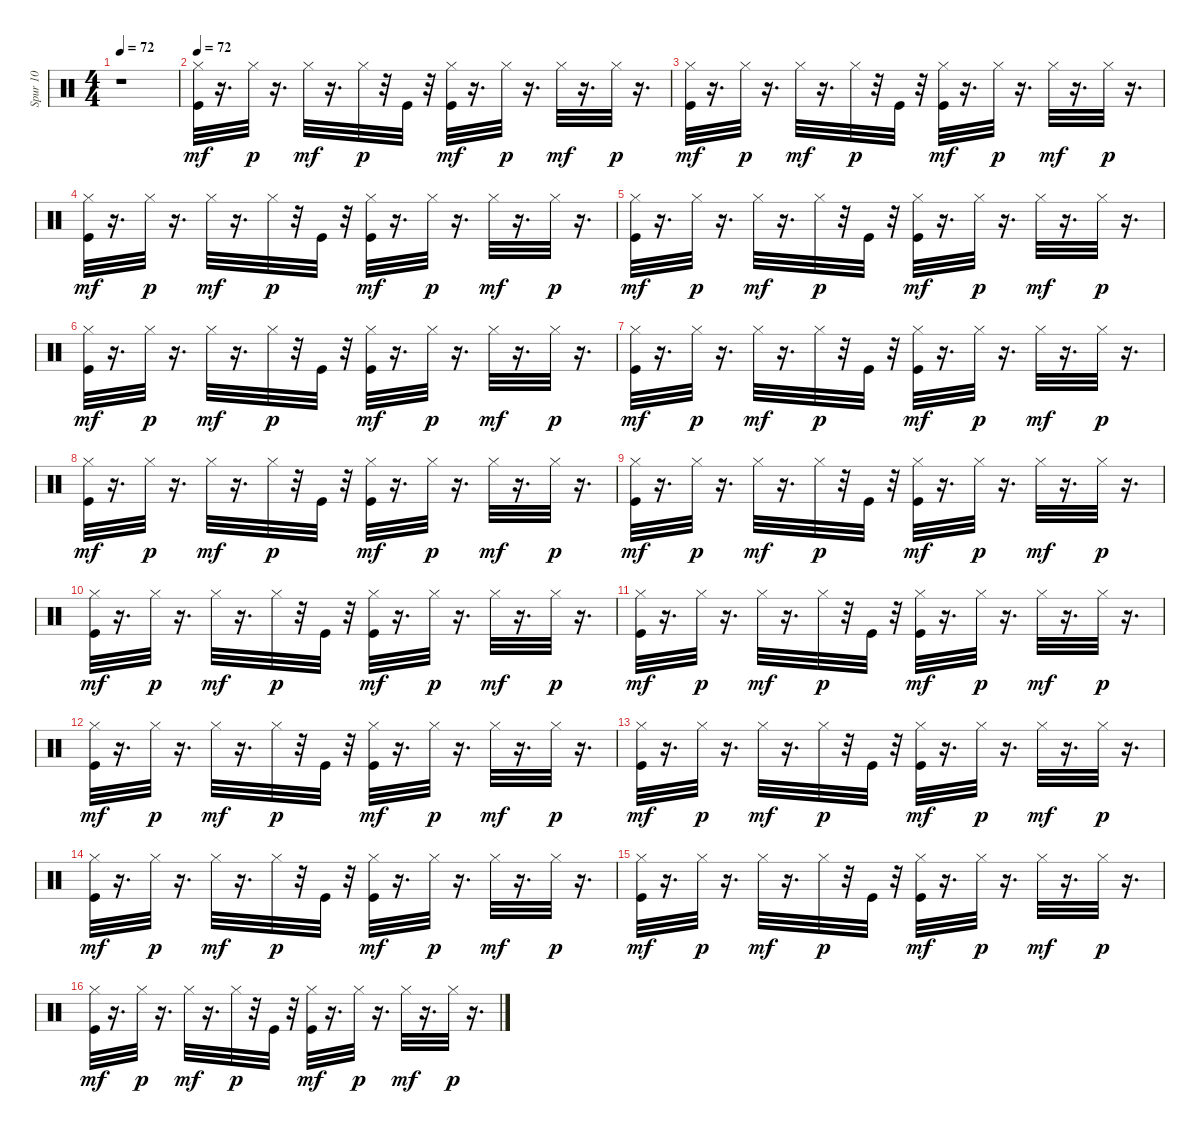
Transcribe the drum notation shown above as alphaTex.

\track ("Spur 10" "Spur 10") {instrument percussion}
\staff {score}
\articulation defaults
\ts (4 4)
\tempo 72
\clef neutral
\ks c
r.1{dy mf} |
\tempo 72
("Kick (hit)" "Hi-Hat (closed)").32 r.16{d} "Hi-Hat (closed)".32{dy p} r.16{d} "Hi-Hat (closed)".32{dy mf} r.16{d} "Hi-Hat (closed)".32{dy p} r.32 "Kick (hit)".32 r.32 ("Kick (hit)" "Hi-Hat (closed)").32{dy mf} r.16{d} "Hi-Hat (closed)".32{dy p} r.16{d} "Hi-Hat (closed)".32{dy mf} r.16{d} "Hi-Hat (closed)".32{dy p} r.16{d} |
("Kick (hit)" "Hi-Hat (closed)").32{dy mf} r.16{d} "Hi-Hat (closed)".32{dy p} r.16{d} "Hi-Hat (closed)".32{dy mf} r.16{d} "Hi-Hat (closed)".32{dy p} r.32 "Kick (hit)".32 r.32 ("Kick (hit)" "Hi-Hat (closed)").32{dy mf} r.16{d} "Hi-Hat (closed)".32{dy p} r.16{d} "Hi-Hat (closed)".32{dy mf} r.16{d} "Hi-Hat (closed)".32{dy p} r.16{d} |
("Kick (hit)" "Hi-Hat (closed)").32{dy mf} r.16{d} "Hi-Hat (closed)".32{dy p} r.16{d} "Hi-Hat (closed)".32{dy mf} r.16{d} "Hi-Hat (closed)".32{dy p} r.32 "Kick (hit)".32 r.32 ("Kick (hit)" "Hi-Hat (closed)").32{dy mf} r.16{d} "Hi-Hat (closed)".32{dy p} r.16{d} "Hi-Hat (closed)".32{dy mf} r.16{d} "Hi-Hat (closed)".32{dy p} r.16{d} |
("Kick (hit)" "Hi-Hat (closed)").32{dy mf} r.16{d} "Hi-Hat (closed)".32{dy p} r.16{d} "Hi-Hat (closed)".32{dy mf} r.16{d} "Hi-Hat (closed)".32{dy p} r.32 "Kick (hit)".32 r.32 ("Kick (hit)" "Hi-Hat (closed)").32{dy mf} r.16{d} "Hi-Hat (closed)".32{dy p} r.16{d} "Hi-Hat (closed)".32{dy mf} r.16{d} "Hi-Hat (closed)".32{dy p} r.16{d} |
("Kick (hit)" "Hi-Hat (closed)").32{dy mf} r.16{d} "Hi-Hat (closed)".32{dy p} r.16{d} "Hi-Hat (closed)".32{dy mf} r.16{d} "Hi-Hat (closed)".32{dy p} r.32 "Kick (hit)".32 r.32 ("Kick (hit)" "Hi-Hat (closed)").32{dy mf} r.16{d} "Hi-Hat (closed)".32{dy p} r.16{d} "Hi-Hat (closed)".32{dy mf} r.16{d} "Hi-Hat (closed)".32{dy p} r.16{d} |
("Kick (hit)" "Hi-Hat (closed)").32{dy mf} r.16{d} "Hi-Hat (closed)".32{dy p} r.16{d} "Hi-Hat (closed)".32{dy mf} r.16{d} "Hi-Hat (closed)".32{dy p} r.32 "Kick (hit)".32 r.32 ("Kick (hit)" "Hi-Hat (closed)").32{dy mf} r.16{d} "Hi-Hat (closed)".32{dy p} r.16{d} "Hi-Hat (closed)".32{dy mf} r.16{d} "Hi-Hat (closed)".32{dy p} r.16{d} |
("Kick (hit)" "Hi-Hat (closed)").32{dy mf} r.16{d} "Hi-Hat (closed)".32{dy p} r.16{d} "Hi-Hat (closed)".32{dy mf} r.16{d} "Hi-Hat (closed)".32{dy p} r.32 "Kick (hit)".32 r.32 ("Kick (hit)" "Hi-Hat (closed)").32{dy mf} r.16{d} "Hi-Hat (closed)".32{dy p} r.16{d} "Hi-Hat (closed)".32{dy mf} r.16{d} "Hi-Hat (closed)".32{dy p} r.16{d} |
("Kick (hit)" "Hi-Hat (closed)").32{dy mf} r.16{d} "Hi-Hat (closed)".32{dy p} r.16{d} "Hi-Hat (closed)".32{dy mf} r.16{d} "Hi-Hat (closed)".32{dy p} r.32 "Kick (hit)".32 r.32 ("Kick (hit)" "Hi-Hat (closed)").32{dy mf} r.16{d} "Hi-Hat (closed)".32{dy p} r.16{d} "Hi-Hat (closed)".32{dy mf} r.16{d} "Hi-Hat (closed)".32{dy p} r.16{d} |
("Kick (hit)" "Hi-Hat (closed)").32{dy mf} r.16{d} "Hi-Hat (closed)".32{dy p} r.16{d} "Hi-Hat (closed)".32{dy mf} r.16{d} "Hi-Hat (closed)".32{dy p} r.32 "Kick (hit)".32 r.32 ("Kick (hit)" "Hi-Hat (closed)").32{dy mf} r.16{d} "Hi-Hat (closed)".32{dy p} r.16{d} "Hi-Hat (closed)".32{dy mf} r.16{d} "Hi-Hat (closed)".32{dy p} r.16{d} |
("Kick (hit)" "Hi-Hat (closed)").32{dy mf} r.16{d} "Hi-Hat (closed)".32{dy p} r.16{d} "Hi-Hat (closed)".32{dy mf} r.16{d} "Hi-Hat (closed)".32{dy p} r.32 "Kick (hit)".32 r.32 ("Kick (hit)" "Hi-Hat (closed)").32{dy mf} r.16{d} "Hi-Hat (closed)".32{dy p} r.16{d} "Hi-Hat (closed)".32{dy mf} r.16{d} "Hi-Hat (closed)".32{dy p} r.16{d} |
("Kick (hit)" "Hi-Hat (closed)").32{dy mf} r.16{d} "Hi-Hat (closed)".32{dy p} r.16{d} "Hi-Hat (closed)".32{dy mf} r.16{d} "Hi-Hat (closed)".32{dy p} r.32 "Kick (hit)".32 r.32 ("Kick (hit)" "Hi-Hat (closed)").32{dy mf} r.16{d} "Hi-Hat (closed)".32{dy p} r.16{d} "Hi-Hat (closed)".32{dy mf} r.16{d} "Hi-Hat (closed)".32{dy p} r.16{d} |
("Kick (hit)" "Hi-Hat (closed)").32{dy mf} r.16{d} "Hi-Hat (closed)".32{dy p} r.16{d} "Hi-Hat (closed)".32{dy mf} r.16{d} "Hi-Hat (closed)".32{dy p} r.32 "Kick (hit)".32 r.32 ("Kick (hit)" "Hi-Hat (closed)").32{dy mf} r.16{d} "Hi-Hat (closed)".32{dy p} r.16{d} "Hi-Hat (closed)".32{dy mf} r.16{d} "Hi-Hat (closed)".32{dy p} r.16{d} |
("Kick (hit)" "Hi-Hat (closed)").32{dy mf} r.16{d} "Hi-Hat (closed)".32{dy p} r.16{d} "Hi-Hat (closed)".32{dy mf} r.16{d} "Hi-Hat (closed)".32{dy p} r.32 "Kick (hit)".32 r.32 ("Kick (hit)" "Hi-Hat (closed)").32{dy mf} r.16{d} "Hi-Hat (closed)".32{dy p} r.16{d} "Hi-Hat (closed)".32{dy mf} r.16{d} "Hi-Hat (closed)".32{dy p} r.16{d} |
("Kick (hit)" "Hi-Hat (closed)").32{dy mf} r.16{d} "Hi-Hat (closed)".32{dy p} r.16{d} "Hi-Hat (closed)".32{dy mf} r.16{d} "Hi-Hat (closed)".32{dy p} r.32 "Kick (hit)".32 r.32 ("Kick (hit)" "Hi-Hat (closed)").32{dy mf} r.16{d} "Hi-Hat (closed)".32{dy p} r.16{d} "Hi-Hat (closed)".32{dy mf} r.16{d} "Hi-Hat (closed)".32{dy p} r.16{d} |
("Kick (hit)" "Hi-Hat (closed)").32{dy mf} r.16{d} "Hi-Hat (closed)".32{dy p} r.16{d} "Hi-Hat (closed)".32{dy mf} r.16{d} "Hi-Hat (closed)".32{dy p} r.32 "Kick (hit)".32 r.32 ("Kick (hit)" "Hi-Hat (closed)").32{dy mf} r.16{d} "Hi-Hat (closed)".32{dy p} r.16{d} "Hi-Hat (closed)".32{dy mf} r.16{d} "Hi-Hat (closed)".32{dy p} r.16{d}
